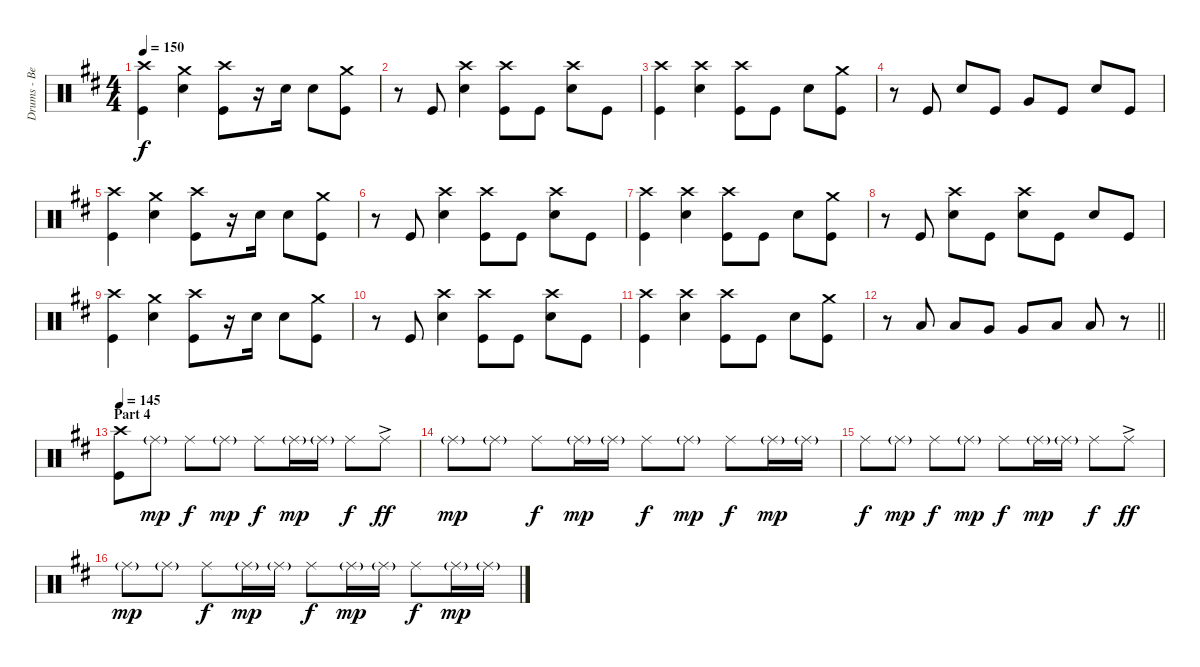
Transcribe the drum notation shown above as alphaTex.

\track ("Drums - Ben Johnston" "Drums - Be") {instrument percussion}
\staff {score}
\articulation defaults
\ts (4 4)
\tempo 150
\clef neutral
\ks d
("Crash high (hit)" "Kick (hit)").4{dy f} ("Crash medium (hit)" "Snare (hit) 2").4 ("Crash high (hit)" "Kick (hit)").8 r.16 "Snare (hit) 2".16 "Snare (hit) 2".8 ("Crash medium (hit)" "Kick (hit)").8 |
r.8 "Kick (hit)".8 ("Crash high (hit)" "Snare (hit) 2").4 ("Crash high (hit)" "Kick (hit)").8 "Kick (hit)".8 ("Crash high (hit)" "Snare (hit) 2").8 "Kick (hit)".8 |
("Crash high (hit)" "Kick (hit)").4 ("Crash high (hit)" "Snare (hit) 2").4 ("Crash high (hit)" "Kick (hit)").8 "Kick (hit)".8 "Snare (hit) 2".8 ("Crash medium (hit)" "Kick (hit)").8 |
r.8 "Kick (hit)".8 "Snare (hit) 2".8 "Kick (hit)".8 "Very Low Tom (hit)".8 "Kick (hit)".8 "Snare (hit) 2".8 "Kick (hit)".8 |
("Crash high (hit)" "Kick (hit)").4 ("Crash medium (hit)" "Snare (hit) 2").4 ("Crash high (hit)" "Kick (hit)").8 r.16 "Snare (hit) 2".16 "Snare (hit) 2".8 ("Crash medium (hit)" "Kick (hit)").8 |
r.8 "Kick (hit)".8 ("Crash high (hit)" "Snare (hit) 2").4 ("Crash high (hit)" "Kick (hit)").8 "Kick (hit)".8 ("Crash high (hit)" "Snare (hit) 2").8 "Kick (hit)".8 |
("Crash high (hit)" "Kick (hit)").4 ("Crash high (hit)" "Snare (hit) 2").4 ("Crash high (hit)" "Kick (hit)").8 "Kick (hit)".8 "Snare (hit) 2".8 ("Crash medium (hit)" "Kick (hit)").8 |
r.8 "Kick (hit)".8 ("Crash high (hit)" "Snare (hit) 2").8 "Kick (hit)".8 ("Crash high (hit)" "Snare (hit) 2").8 "Kick (hit)".8 "Snare (hit) 2".8 "Kick (hit)".8 |
("Crash high (hit)" "Kick (hit)").4 ("Crash medium (hit)" "Snare (hit) 2").4 ("Crash high (hit)" "Kick (hit)").8 r.16 "Snare (hit) 2".16 "Snare (hit) 2".8 ("Crash medium (hit)" "Kick (hit)").8 |
r.8 "Kick (hit)".8 ("Crash high (hit)" "Snare (hit) 2").4 ("Crash high (hit)" "Kick (hit)").8 "Kick (hit)".8 ("Crash high (hit)" "Snare (hit) 2").8 "Kick (hit)".8 |
("Crash high (hit)" "Kick (hit)").4 ("Crash high (hit)" "Snare (hit) 2").4 ("Crash high (hit)" "Kick (hit)").8 "Kick (hit)".8 "Snare (hit) 2".8 ("Crash medium (hit)" "Kick (hit)").8 |
\barLineRight lightlight
r.8 "Low Tom (hit)".8 "Low Tom (hit)".8 "Very Low Tom (hit)".8 "Very Low Tom (hit)".8 "Low Floor Tom (hit)".8 "Low Floor Tom (hit)".8 r.8 |
\section ("" "Part 4")
\tempo 145
("Crash high (hit)" "Kick (hit)").8 "Ride (middle)"{g}.8{dy mp} "Ride (middle)".8{dy f} "Ride (middle)"{g}.8{dy mp} "Ride (middle)".8{dy f} "Ride (middle)"{g}.16{dy mp} "Ride (middle)"{g}.16 "Ride (middle)".8{dy f} "Ride (middle)"{ac}.8{dy ff} |
"Ride (middle)"{g}.8{dy mp} "Ride (middle)"{g}.8 "Ride (middle)".8{dy f} "Ride (middle)"{g}.16{dy mp} "Ride (middle)"{g}.16 "Ride (middle)".8{dy f} "Ride (middle)"{g}.8{dy mp} "Ride (middle)".8{dy f} "Ride (middle)"{g}.16{dy mp} "Ride (middle)"{g}.16 |
"Ride (middle)".8{dy f} "Ride (middle)"{g}.8{dy mp} "Ride (middle)".8{dy f} "Ride (middle)"{g}.8{dy mp} "Ride (middle)".8{dy f} "Ride (middle)"{g}.16{dy mp} "Ride (middle)"{g}.16 "Ride (middle)".8{dy f} "Ride (middle)"{ac}.8{dy ff} |
"Ride (middle)"{g}.8{dy mp} "Ride (middle)"{g}.8 "Ride (middle)".8{dy f} "Ride (middle)"{g}.16{dy mp} "Ride (middle)"{g}.16 "Ride (middle)".8{dy f} "Ride (middle)"{g}.16{dy mp} "Ride (middle)"{g}.16 "Ride (middle)".8{dy f} "Ride (middle)"{g}.16{dy mp} "Ride (middle)"{g}.16
